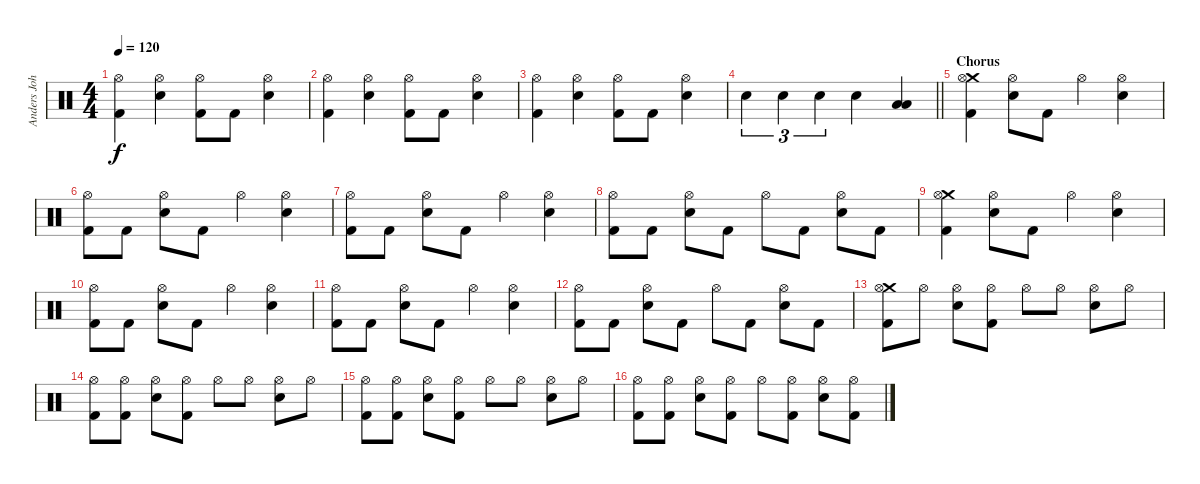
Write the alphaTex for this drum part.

\track ("Anders Johansson" "Anders Joh") {instrument percussion}
\staff {score}
\articulation defaults
\ts (4 4)
\tempo 120
\clef neutral
\ks c
("Hi-Hat (open)" "Kick (hit) 2").4{dy f} ("Hi-Hat (open)" "Snare (hit) 2").4 ("Hi-Hat (open)" "Kick (hit) 2").8 "Kick (hit) 2".8 ("Hi-Hat (open)" "Snare (hit) 2").4 |
("Hi-Hat (open)" "Kick (hit) 2").4 ("Hi-Hat (open)" "Snare (hit) 2").4 ("Hi-Hat (open)" "Kick (hit) 2").8 "Kick (hit) 2".8 ("Hi-Hat (open)" "Snare (hit) 2").4 |
("Hi-Hat (open)" "Kick (hit) 2").4 ("Hi-Hat (open)" "Snare (hit) 2").4 ("Hi-Hat (open)" "Kick (hit) 2").8 "Kick (hit) 2".8 ("Hi-Hat (open)" "Snare (hit) 2").4 |
\barLineRight lightlight "Snare (hit) 2".4{tu (3 2)} "Snare (hit) 2".4{tu (3 2)} "Snare (hit) 2".4{tu (3 2)} "Snare (hit) 2".4
("Low Tom (hit)" "Low Floor Tom (hit)").4 |
\section ("" "Chorus")
("Crash medium (hit)" "Hi-Hat (open)" "Kick (hit) 2").4 ("Hi-Hat (open)" "Snare (hit) 2").8 "Kick (hit) 2".8 "Hi-Hat (open)".4 ("Hi-Hat (open)" "Snare (hit) 2").4 |
("Hi-Hat (open)" "Kick (hit) 2").8 "Kick (hit) 2".8 ("Hi-Hat (open)" "Snare (hit) 2").8 "Kick (hit) 2".8 "Hi-Hat (open)".4 ("Hi-Hat (open)" "Snare (hit) 2").4 |
("Hi-Hat (open)" "Kick (hit) 2").8 "Kick (hit) 2".8 ("Hi-Hat (open)" "Snare (hit) 2").8 "Kick (hit) 2".8 "Hi-Hat (open)".4 ("Hi-Hat (open)" "Snare (hit) 2").4 |
("Hi-Hat (open)" "Kick (hit) 2").8 "Kick (hit) 2".8 ("Hi-Hat (open)" "Snare (hit) 2").8 "Kick (hit) 2".8 "Hi-Hat (open)".8 "Kick (hit) 2".8 ("Hi-Hat (open)" "Snare (hit) 2").8 "Kick (hit) 2".8 |
("Crash medium (hit)" "Hi-Hat (open)" "Kick (hit) 2").4 ("Hi-Hat (open)" "Snare (hit) 2").8 "Kick (hit) 2".8 "Hi-Hat (open)".4 ("Hi-Hat (open)" "Snare (hit) 2").4 |
("Hi-Hat (open)" "Kick (hit) 2").8 "Kick (hit) 2".8 ("Hi-Hat (open)" "Snare (hit) 2").8 "Kick (hit) 2".8 "Hi-Hat (open)".4 ("Hi-Hat (open)" "Snare (hit) 2").4 |
("Hi-Hat (open)" "Kick (hit) 2").8 "Kick (hit) 2".8 ("Hi-Hat (open)" "Snare (hit) 2").8 "Kick (hit) 2".8 "Hi-Hat (open)".4 ("Hi-Hat (open)" "Snare (hit) 2").4 |
("Hi-Hat (open)" "Kick (hit) 2").8 "Kick (hit) 2".8 ("Hi-Hat (open)" "Snare (hit) 2").8 "Kick (hit) 2".8 "Hi-Hat (open)".8 "Kick (hit) 2".8 ("Hi-Hat (open)" "Snare (hit) 2").8 "Kick (hit) 2".8 |
("Crash medium (hit)" "Hi-Hat (open)" "Kick (hit) 2").8 "Hi-Hat (open)".8 ("Hi-Hat (open)" "Snare (hit) 2").8 ("Hi-Hat (open)" "Kick (hit) 2").8 "Hi-Hat (open)".8 "Hi-Hat (open)".8 ("Hi-Hat (open)" "Snare (hit) 2").8 "Hi-Hat (open)".8 |
("Hi-Hat (open)" "Kick (hit) 2").8 ("Hi-Hat (open)" "Kick (hit) 2").8 ("Hi-Hat (open)" "Snare (hit) 2").8 ("Hi-Hat (open)" "Kick (hit) 2").8 "Hi-Hat (open)".8 "Hi-Hat (open)".8 ("Hi-Hat (open)" "Snare (hit) 2").8 "Hi-Hat (open)".8 |
("Hi-Hat (open)" "Kick (hit) 2").8 ("Hi-Hat (open)" "Kick (hit) 2").8 ("Hi-Hat (open)" "Snare (hit) 2").8 ("Hi-Hat (open)" "Kick (hit) 2").8 "Hi-Hat (open)".8 "Hi-Hat (open)".8 ("Hi-Hat (open)" "Snare (hit) 2").8 "Hi-Hat (open)".8 |
("Hi-Hat (open)" "Kick (hit) 2").8 ("Hi-Hat (open)" "Kick (hit) 2").8 ("Hi-Hat (open)" "Snare (hit) 2").8 ("Hi-Hat (open)" "Kick (hit) 2").8 "Hi-Hat (open)".8 ("Hi-Hat (open)" "Kick (hit) 2").8 ("Hi-Hat (open)" "Snare (hit) 2").8 ("Hi-Hat (open)" "Kick (hit) 2").8
